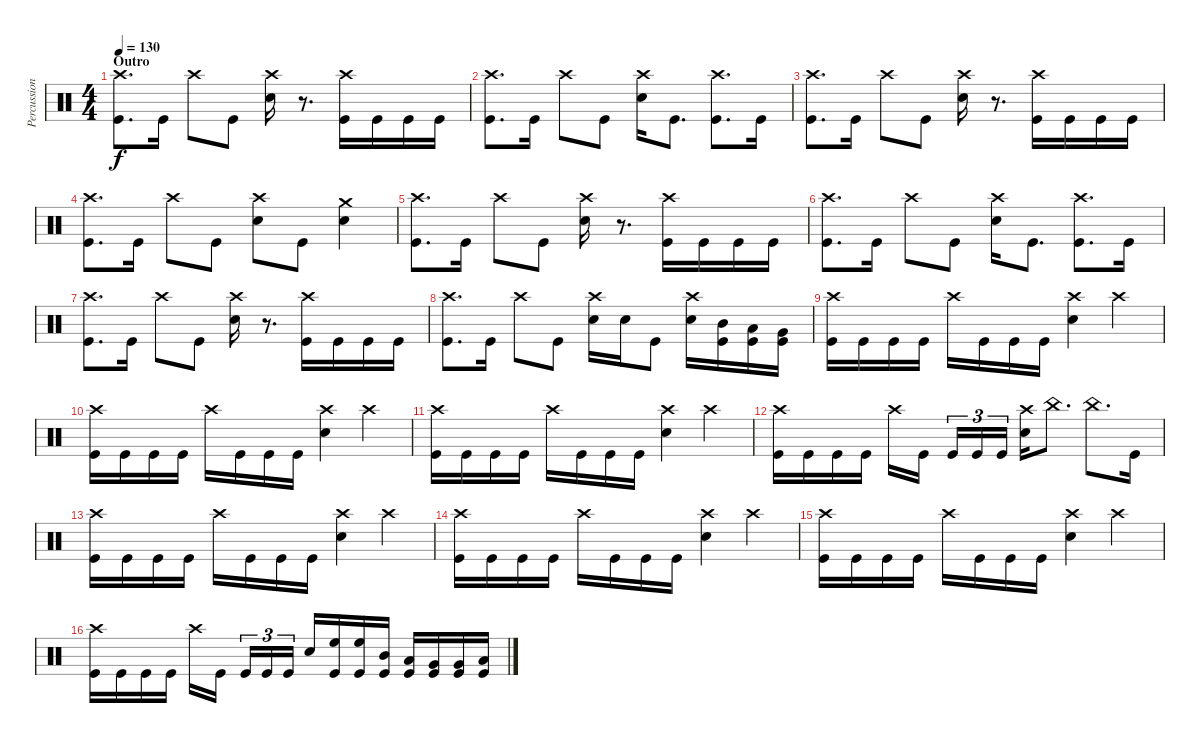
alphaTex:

\track ("Percussion" "Percussion") {instrument percussion}
\staff {score}
\articulation defaults
\ts (4 4)
\section ("" "Outro")
\tempo 130
\clef neutral
\ks c
("Crash high (hit)" "Kick (hit)").8{d dy f} "Kick (hit)".16 "Crash high (hit)".8 "Kick (hit)".8 ("Crash high (hit)" "Snare (hit) 2").16 r.8{d} ("Crash high (hit)" "Kick (hit)").16 "Kick (hit)".16 "Kick (hit)".16 "Kick (hit)".16 |
("Crash high (hit)" "Kick (hit)").8{d} "Kick (hit)".16 "Crash high (hit)".8 "Kick (hit)".8 ("Crash high (hit)" "Snare (hit) 2").16 "Kick (hit)".8{d} ("Crash high (hit)" "Kick (hit)").8{d} "Kick (hit)".16 |
("Crash high (hit)" "Kick (hit)").8{d} "Kick (hit)".16 "Crash high (hit)".8 "Kick (hit)".8 ("Crash high (hit)" "Snare (hit) 2").16 r.8{d} ("Crash high (hit)" "Kick (hit)").16 "Kick (hit)".16 "Kick (hit)".16 "Kick (hit)".16 |
("Crash high (hit)" "Kick (hit)").8{d} "Kick (hit)".16 "Crash high (hit)".8 "Kick (hit)".8 ("Crash high (hit)" "Snare (hit) 2").8 "Kick (hit)".8 ("Crash medium (hit)" "Snare (hit) 2").4 |
("Crash high (hit)" "Kick (hit)").8{d} "Kick (hit)".16 "Crash high (hit)".8 "Kick (hit)".8 ("Crash high (hit)" "Snare (hit) 2").16 r.8{d} ("Crash high (hit)" "Kick (hit)").16 "Kick (hit)".16 "Kick (hit)".16 "Kick (hit)".16 |
("Crash high (hit)" "Kick (hit)").8{d} "Kick (hit)".16 "Crash high (hit)".8 "Kick (hit)".8 ("Crash high (hit)" "Snare (hit) 2").16 "Kick (hit)".8{d} ("Crash high (hit)" "Kick (hit)").8{d} "Kick (hit)".16 |
("Crash high (hit)" "Kick (hit)").8{d} "Kick (hit)".16 "Crash high (hit)".8 "Kick (hit)".8 ("Crash high (hit)" "Snare (hit) 2").16 r.8{d} ("Crash high (hit)" "Kick (hit)").16 "Kick (hit)".16 "Kick (hit)".16 "Kick (hit)".16 |
("Crash high (hit)" "Kick (hit)").8{d} "Kick (hit)".16 "Crash high (hit)".8 "Kick (hit)".8 ("Crash high (hit)" "Snare (hit) 2").16 "Snare (hit) 2".16 "Kick (hit)".8 ("Crash high (hit)" "Snare (hit) 2").16 ("Mid Tom (hit)" "Kick (hit)").16 ("Low Tom (hit)" "Kick (hit)").16 ("Very Low Tom (hit)" "Kick (hit)").16 |
("Crash high (hit)" "Kick (hit)").16 "Kick (hit)".16 "Kick (hit)".16 "Kick (hit)".16 "Crash high (hit)".16 "Kick (hit)".16 "Kick (hit)".16 "Kick (hit)".16 ("Crash high (hit)" "Snare (hit) 2").4 "Crash high (hit)".4 |
("Crash high (hit)" "Kick (hit)").16 "Kick (hit)".16 "Kick (hit)".16 "Kick (hit)".16 "Crash high (hit)".16 "Kick (hit)".16 "Kick (hit)".16 "Kick (hit)".16 ("Crash high (hit)" "Snare (hit) 2").4 "Crash high (hit)".4 |
("Crash high (hit)" "Kick (hit)").16 "Kick (hit)".16 "Kick (hit)".16 "Kick (hit)".16 "Crash high (hit)".16 "Kick (hit)".16 "Kick (hit)".16 "Kick (hit)".16 ("Crash high (hit)" "Snare (hit) 2").4 "Crash high (hit)".4 |
("Crash high (hit)" "Kick (hit)").16 "Kick (hit)".16 "Kick (hit)".16 "Kick (hit)".16 "Crash high (hit)".16 "Kick (hit)".16{beam splitsecondary} "Kick (hit)".16{tu (3 2)} "Kick (hit)".16{tu (3 2)} "Kick (hit)".16{tu (3 2)} ("Crash high (hit)" "Snare (hit) 2").16 "China (hit)".8{d} "China (hit)".8{d} "Kick (hit)".16 |
("Crash high (hit)" "Kick (hit)").16 "Kick (hit)".16 "Kick (hit)".16 "Kick (hit)".16 "Crash high (hit)".16 "Kick (hit)".16 "Kick (hit)".16 "Kick (hit)".16 ("Crash high (hit)" "Snare (hit) 2").4 "Crash high (hit)".4 |
("Crash high (hit)" "Kick (hit)").16 "Kick (hit)".16 "Kick (hit)".16 "Kick (hit)".16 "Crash high (hit)".16 "Kick (hit)".16 "Kick (hit)".16 "Kick (hit)".16 ("Crash high (hit)" "Snare (hit) 2").4 "Crash high (hit)".4 |
("Crash high (hit)" "Kick (hit)").16 "Kick (hit)".16 "Kick (hit)".16 "Kick (hit)".16 "Crash high (hit)".16 "Kick (hit)".16 "Kick (hit)".16 "Kick (hit)".16 ("Crash high (hit)" "Snare (hit) 2").4 "Crash high (hit)".4 |
("Crash high (hit)" "Kick (hit)").16 "Kick (hit)".16 "Kick (hit)".16 "Kick (hit)".16 "Crash high (hit)".16 "Kick (hit)".16{beam splitsecondary} "Kick (hit)".16{tu (3 2)} "Kick (hit)".16{tu (3 2)} "Kick (hit)".16{tu (3 2)} "Snare (hit) 2".16 ("High Floor Tom (hit)" "Kick (hit)").16 ("High Floor Tom (hit)" "Kick (hit)").16 ("Mid Tom (hit)" "Kick (hit)").16 ("Low Tom (hit)" "Kick (hit)").16 ("Very Low Tom (hit)" "Kick (hit)").16 ("Very Low Tom (hit)" "Kick (hit)").16 ("Low Floor Tom (hit)" "Kick (hit)").16
